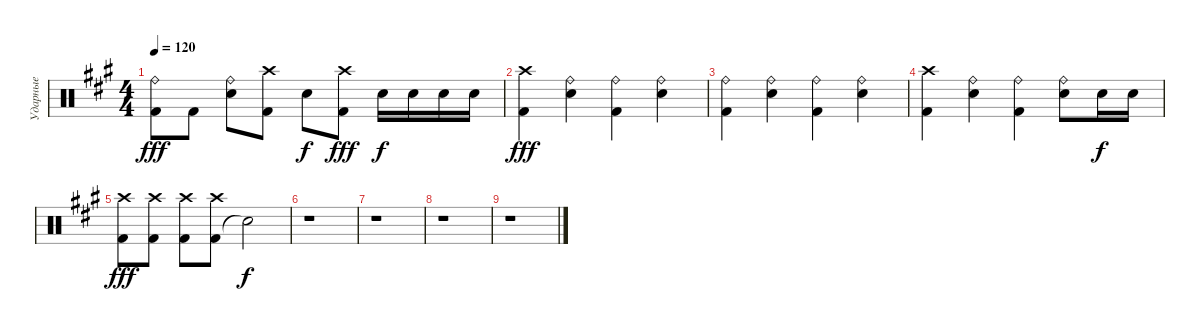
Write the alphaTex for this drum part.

\track ("Ударные" "Ударные") {instrument percussion}
\staff {score}
\articulation defaults
\ts (4 4)
\tempo 120
\clef neutral
\ks a
("Kick (hit) 2" "Ride (bell)").8{dy fff} "Kick (hit) 2".8 ("Snare (hit) 2" "Ride (bell)").8 ("Kick (hit) 2" "Crash high (hit)").8 "Snare (hit) 2".8{dy f} ("Kick (hit) 2" "Crash high (hit)").8{dy fff} "Snare (hit) 2".16{dy f} "Snare (hit) 2".16 "Snare (hit) 2".16 "Snare (hit) 2".16 |
("Kick (hit) 2" "Crash high (hit)").4{dy fff} ("Snare (hit) 2" "Ride (bell)").4 ("Kick (hit) 2" "Ride (bell)").4 ("Snare (hit) 2" "Ride (bell)").4 |
("Kick (hit) 2" "Ride (bell)").4 ("Snare (hit) 2" "Ride (bell)").4 ("Kick (hit) 2" "Ride (bell)").4 ("Snare (hit) 2" "Ride (bell)").4 |
("Kick (hit) 2" "Crash high (hit)").4 ("Snare (hit) 2" "Ride (bell)").4 ("Kick (hit) 2" "Ride (bell)").4 ("Snare (hit) 2" "Ride (bell)").8 "Snare (hit) 2".16{dy f} "Snare (hit) 2".16 |
("Kick (hit) 2" "Crash high (hit)").8{dy fff} ("Kick (hit) 2" "Crash high (hit)").8 ("Kick (hit) 2" "Crash high (hit)").8 ("Kick (hit) 2" "Crash high (hit)").8 "Snare (hit)"{t}.2{dy f} |
r.1 |
r.1 |
r.1 |
r.1
